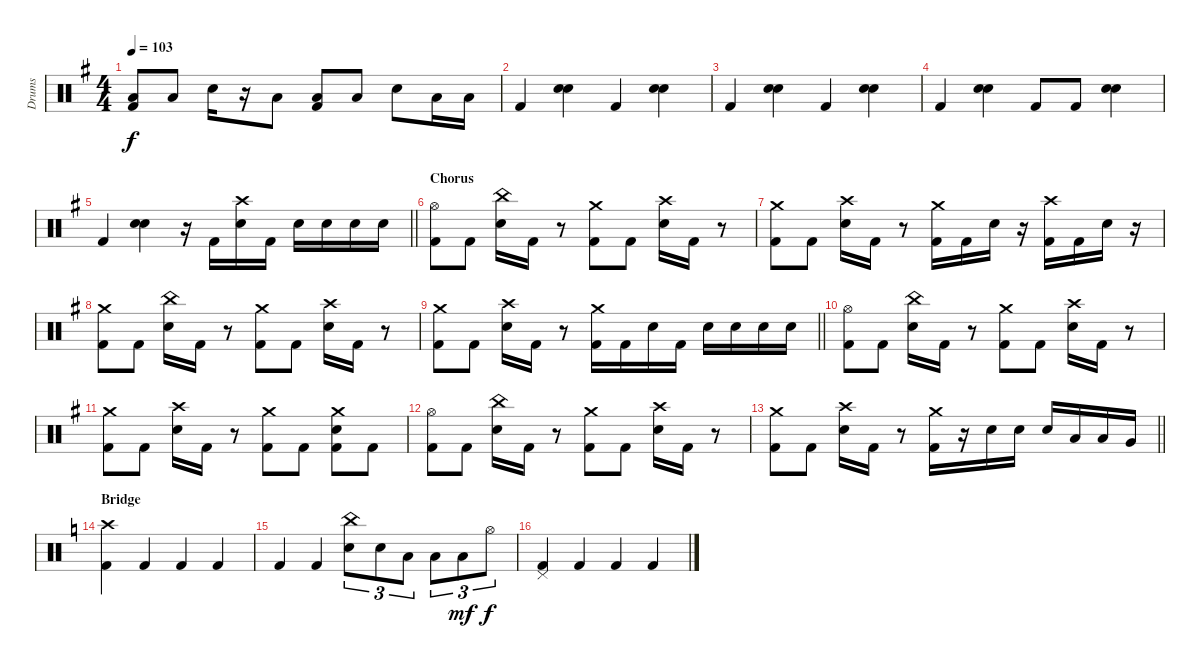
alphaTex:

\track ("Drums" "Drums") {instrument percussion}
\staff {score}
\articulation defaults
\ts (4 4)
\tempo 103
\clef neutral
\ks eminor
("Low Floor Tom (hit)" "Kick (hit) 2").8{dy f} "Low Floor Tom (hit)".8 "Electric Snare (hit)".16 r.16 "Low Floor Tom (hit)".8 ("Low Floor Tom (hit)" "Kick (hit) 2").8 "Low Floor Tom (hit)".8 "Electric Snare (hit)".8 "Low Floor Tom (hit)".16 "Low Floor Tom (hit)".16 |
"Kick (hit) 2".4 ("Snare (hit) 2" "Electric Snare (hit)").4 "Kick (hit) 2".4 ("Snare (hit) 2" "Electric Snare (hit)").4 |
"Kick (hit) 2".4 ("Snare (hit) 2" "Electric Snare (hit)").4 "Kick (hit) 2".4 ("Snare (hit) 2" "Electric Snare (hit)").4 |
"Kick (hit) 2".4 ("Snare (hit) 2" "Electric Snare (hit)").4 "Kick (hit) 2".8 "Kick (hit) 2".8 ("Snare (hit) 2" "Electric Snare (hit)").4 |
\barLineRight lightlight "Kick (hit) 2".4
("Snare (hit) 2" "Electric Snare (hit)").4 r.16 "Kick (hit) 2".16 ("Crash high (hit)" "Electric Snare (hit)").16 "Kick (hit) 2".16 "Electric Snare (hit)".16 "Electric Snare (hit)".16 "Electric Snare (hit)".16 "Electric Snare (hit)".16 |
\section ("" "Chorus")
("Hi-Hat (open)" "Kick (hit) 2").8 "Kick (hit) 2".8 ("China (hit)" "Electric Snare (hit)").16 "Kick (hit) 2".16 r.8 ("Crash medium (hit)" "Kick (hit) 2").8 "Kick (hit) 2".8 ("Crash high (hit)" "Electric Snare (hit)").16 "Kick (hit) 2".16 r.8 |
("Crash medium (hit)" "Kick (hit) 2").8 "Kick (hit) 2".8 ("Crash high (hit)" "Electric Snare (hit)").16 "Kick (hit) 2".16 r.8 ("Crash medium (hit)" "Kick (hit) 2").16 "Kick (hit) 2".16 "Electric Snare (hit)".16 r.16 ("Crash high (hit)" "Kick (hit) 2").16 "Kick (hit) 2".16 "Electric Snare (hit)".16 r.16 |
("Crash medium (hit)" "Kick (hit) 2").8 "Kick (hit) 2".8 ("China (hit)" "Electric Snare (hit)").16 "Kick (hit) 2".16 r.8 ("Crash medium (hit)" "Kick (hit) 2").8 "Kick (hit) 2".8 ("Crash high (hit)" "Electric Snare (hit)").16 "Kick (hit) 2".16 r.8 |
\barLineRight lightlight
("Crash medium (hit)" "Kick (hit) 2").8 "Kick (hit) 2".8 ("Crash high (hit)" "Electric Snare (hit)").16 "Kick (hit) 2".16 r.8 ("Crash medium (hit)" "Kick (hit) 2").16 "Kick (hit) 2".16 "Electric Snare (hit)".16 "Kick (hit) 2".16 "Electric Snare (hit)".16 "Electric Snare (hit)".16 "Electric Snare (hit)".16 "Electric Snare (hit)".16 |
("Hi-Hat (open)" "Kick (hit) 2").8 "Kick (hit) 2".8 ("China (hit)" "Electric Snare (hit)").16 "Kick (hit) 2".16 r.8 ("Crash medium (hit)" "Kick (hit) 2").8 "Kick (hit) 2".8 ("Crash high (hit)" "Electric Snare (hit)").16 "Kick (hit) 2".16 r.8 |
("Crash medium (hit)" "Kick (hit) 2").8 "Kick (hit) 2".8 ("Crash high (hit)" "Electric Snare (hit)").16 "Kick (hit) 2".16 r.8 ("Crash medium (hit)" "Kick (hit) 2").8 "Kick (hit) 2".8 ("Crash medium (hit)" "Electric Snare (hit)" "Kick (hit) 2").8 "Kick (hit) 2".8 |
("Hi-Hat (open)" "Kick (hit) 2").8 "Kick (hit) 2".8 ("China (hit)" "Electric Snare (hit)").16 "Kick (hit) 2".16 r.8 ("Crash medium (hit)" "Kick (hit) 2").8 "Kick (hit) 2".8 ("Crash high (hit)" "Electric Snare (hit)").16 "Kick (hit) 2".16 r.8 |
\barLineRight lightlight
("Crash medium (hit)" "Kick (hit) 2").8 "Kick (hit) 2".8 ("Crash high (hit)" "Electric Snare (hit)").16 "Kick (hit) 2".16 r.8 ("Crash medium (hit)" "Kick (hit) 2").16 r.16 "Electric Snare (hit)".16 "Electric Snare (hit)".16 "Electric Snare (hit)".16 "Low Tom (hit)".16 "Low Tom (hit)".16 "Very Low Tom (hit)".16 |
\section ("" "Bridge")
\ks c
("Crash high (hit)" "Kick (hit) 2").4 "Kick (hit) 2".4 "Kick (hit) 2".4 "Kick (hit) 2".4 |
"Kick (hit) 2".4 "Kick (hit) 2".4 ("China (hit)" "Electric Snare (hit)").8{tu (3 2)} "Electric Snare (hit)".8{tu (3 2)} "Low Tom (hit)".8{tu (3 2)} "Low Tom (hit)".8{tu (3 2)} "Low Tom (hit)".8{tu (3 2) dy mf} "Hi-Hat (open)".8{tu (3 2) dy f} |
("Pedal Hi-Hat (hit)" "Kick (hit) 2").4 "Kick (hit) 2".4 "Kick (hit) 2".4 "Kick (hit) 2".4
